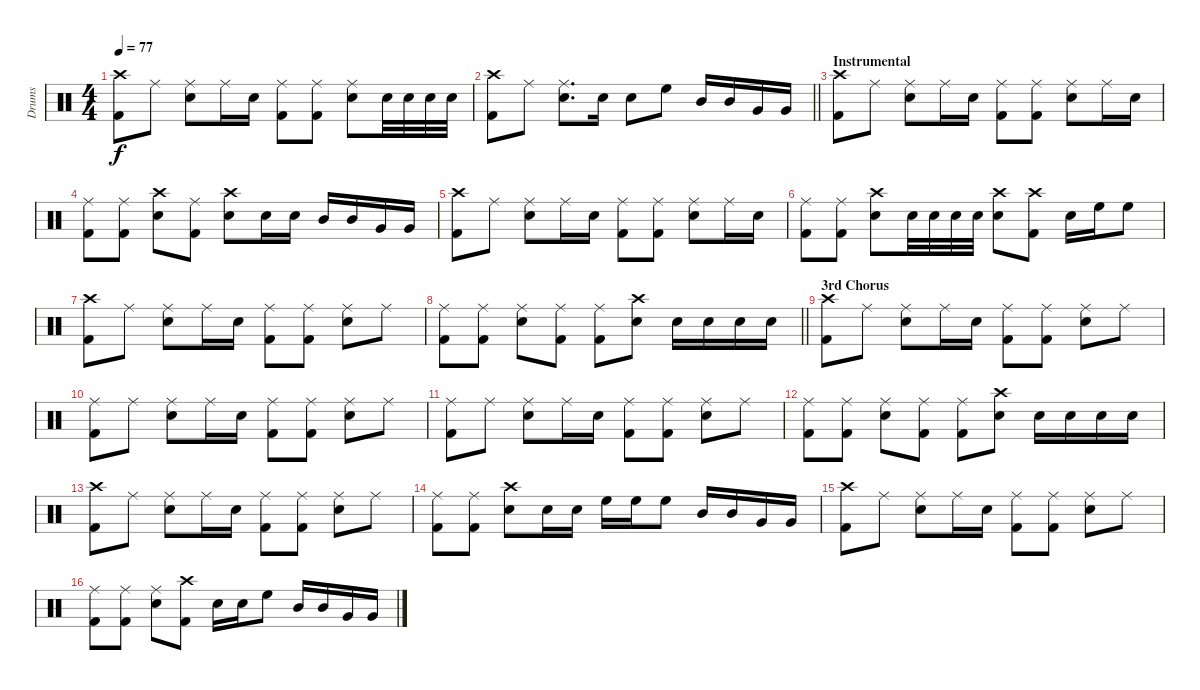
\track ("Drums" "Drums") {instrument percussion}
\staff {score}
\articulation defaults
\ts (4 4)
\tempo 77
\clef neutral
\ks c
("Crash high (hit)" "Kick (hit) 2").8{dy f} "Ride (middle)".8 ("Ride (middle)" "Snare (hit) 2").8 "Ride (middle)".16 "Snare (hit) 2".16 ("Ride (middle)" "Kick (hit) 2").8 ("Ride (middle)" "Kick (hit) 2").8 ("Ride (middle)" "Snare (hit) 2").8 "Snare (hit) 2".32 "Snare (hit) 2".32 "Snare (hit) 2".32 "Snare (hit) 2".32 |
\barLineRight lightlight
("Crash high (hit)" "Kick (hit) 2").8 "Ride (middle)".8 ("Ride (middle)" "Snare (hit) 2").8{d} "Snare (hit) 2".16 "Snare (hit) 2".8 "High Floor Tom (hit)".8 "Mid Tom (hit)".16 "Mid Tom (hit)".16 "Very Low Tom (hit)".16 "Very Low Tom (hit)".16 |
\section ("" "Instrumental")
("Crash high (hit)" "Kick (hit) 2").8 "Ride (middle)".8 ("Ride (middle)" "Snare (hit) 2").8 "Ride (middle)".16 "Snare (hit) 2".16 ("Ride (middle)" "Kick (hit) 2").8 ("Ride (middle)" "Kick (hit) 2").8 ("Ride (middle)" "Snare (hit) 2").8 "Ride (middle)".16 "Snare (hit) 2".16 |
("Ride (middle)" "Kick (hit) 2").8 ("Ride (middle)" "Kick (hit) 2").8 ("Crash high (hit)" "Snare (hit) 2").8 ("Ride (middle)" "Kick (hit) 2").8 ("Crash high (hit)" "Snare (hit) 2").8 "Snare (hit) 2".16 "Snare (hit) 2".16 "Mid Tom (hit)".16 "Mid Tom (hit)".16 "Very Low Tom (hit)".16 "Very Low Tom (hit)".16 |
("Crash high (hit)" "Kick (hit) 2").8 "Ride (middle)".8 ("Ride (middle)" "Snare (hit) 2").8 "Ride (middle)".16 "Snare (hit) 2".16 ("Ride (middle)" "Kick (hit) 2").8 ("Ride (middle)" "Kick (hit) 2").8 ("Ride (middle)" "Snare (hit) 2").8 "Ride (middle)".16 "Snare (hit) 2".16 |
("Ride (middle)" "Kick (hit) 2").8 ("Ride (middle)" "Kick (hit) 2").8 ("Crash high (hit)" "Snare (hit) 2").8 "Snare (hit) 2".32 "Snare (hit) 2".32 "Snare (hit) 2".32 "Snare (hit) 2".32 ("Crash high (hit)" "Snare (hit) 2").8 ("Crash high (hit)" "Kick (hit) 2").8 "Snare (hit) 2".16 "High Floor Tom (hit)".16 "High Floor Tom (hit)".8 |
("Crash high (hit)" "Kick (hit) 2").8 "Ride (middle)".8 ("Ride (middle)" "Snare (hit) 2").8 "Ride (middle)".16 "Snare (hit) 2".16 ("Ride (middle)" "Kick (hit) 2").8 ("Ride (middle)" "Kick (hit) 2").8 ("Ride (middle)" "Snare (hit) 2").8 "Ride (middle)".8 |
\barLineRight lightlight
("Ride (middle)" "Kick (hit) 2").8 ("Ride (middle)" "Kick (hit) 2").8 ("Ride (middle)" "Snare (hit) 2").8 ("Ride (middle)" "Kick (hit) 2").8 ("Ride (middle)" "Kick (hit) 2").8 ("Crash high (hit)" "Snare (hit) 2").8 "Snare (hit) 2".16 "Snare (hit) 2".16 "Snare (hit) 2".16 "Snare (hit) 2".16 |
\section ("" "3rd Chorus")
("Crash high (hit)" "Kick (hit) 2").8 "Ride (middle)".8 ("Ride (middle)" "Snare (hit) 2").8 "Ride (middle)".16 "Snare (hit) 2".16 ("Ride (middle)" "Kick (hit) 2").8 ("Ride (middle)" "Kick (hit) 2").8 ("Ride (middle)" "Snare (hit) 2").8 "Ride (middle)".8 |
("Ride (middle)" "Kick (hit) 2").8 "Ride (middle)".8 ("Ride (middle)" "Snare (hit) 2").8 "Ride (middle)".16 "Snare (hit) 2".16 ("Ride (middle)" "Kick (hit) 2").8 ("Ride (middle)" "Kick (hit) 2").8 ("Ride (middle)" "Snare (hit) 2").8 "Ride (middle)".8 |
("Ride (middle)" "Kick (hit) 2").8 "Ride (middle)".8 ("Ride (middle)" "Snare (hit) 2").8 "Ride (middle)".16 "Snare (hit) 2".16 ("Ride (middle)" "Kick (hit) 2").8 ("Ride (middle)" "Kick (hit) 2").8 ("Ride (middle)" "Snare (hit) 2").8 "Ride (middle)".8 |
("Ride (middle)" "Kick (hit) 2").8 ("Ride (middle)" "Kick (hit) 2").8 ("Ride (middle)" "Snare (hit) 2").8 ("Ride (middle)" "Kick (hit) 2").8 ("Ride (middle)" "Kick (hit) 2").8 ("Crash high (hit)" "Snare (hit) 2").8 "Snare (hit) 2".16 "Snare (hit) 2".16 "Snare (hit) 2".16 "Snare (hit) 2".16 |
("Crash high (hit)" "Kick (hit) 2").8 "Ride (middle)".8 ("Ride (middle)" "Snare (hit) 2").8 "Ride (middle)".16 "Snare (hit) 2".16 ("Ride (middle)" "Kick (hit) 2").8 ("Ride (middle)" "Kick (hit) 2").8 ("Ride (middle)" "Snare (hit) 2").8 "Ride (middle)".8 |
("Ride (middle)" "Kick (hit) 2").8 ("Ride (middle)" "Kick (hit) 2").8 ("Crash high (hit)" "Snare (hit) 2").8 "Snare (hit) 2".16 "Snare (hit) 2".16 "High Floor Tom (hit)".16 "High Floor Tom (hit)".16 "High Floor Tom (hit)".8 "Mid Tom (hit)".16 "Mid Tom (hit)".16 "Very Low Tom (hit)".16 "Very Low Tom (hit)".16 |
("Crash high (hit)" "Kick (hit) 2").8 "Ride (middle)".8 ("Ride (middle)" "Snare (hit) 2").8 "Ride (middle)".16 "Snare (hit) 2".16 ("Ride (middle)" "Kick (hit) 2").8 ("Ride (middle)" "Kick (hit) 2").8 ("Ride (middle)" "Snare (hit) 2").8 "Ride (middle)".8 |
("Ride (middle)" "Kick (hit) 2").8 ("Ride (middle)" "Kick (hit) 2").8 ("Ride (middle)" "Snare (hit) 2").8 ("Crash high (hit)" "Kick (hit) 2").8 "Snare (hit) 2".16 "Snare (hit) 2".16 "High Floor Tom (hit)".8 "Mid Tom (hit)".16 "Mid Tom (hit)".16 "Very Low Tom (hit)".16 "Very Low Tom (hit)".16
